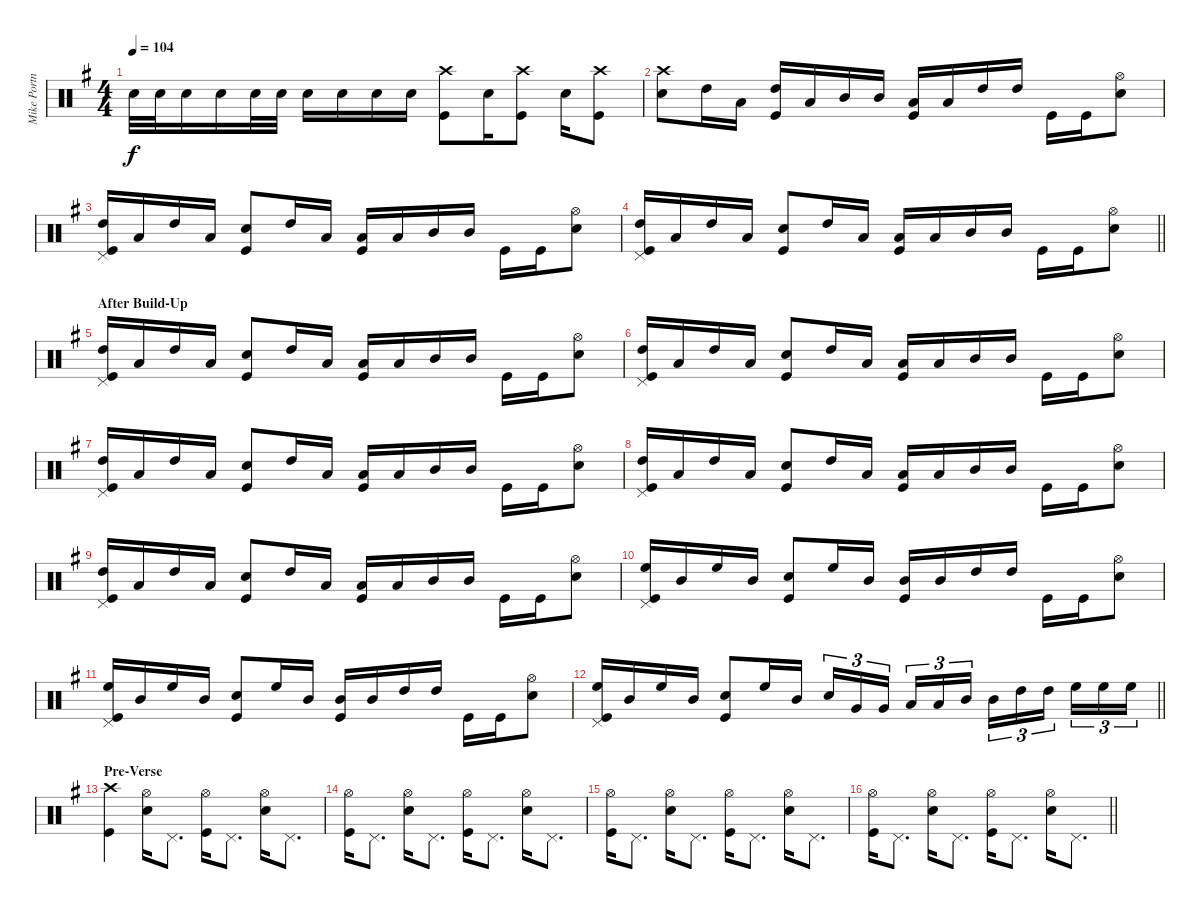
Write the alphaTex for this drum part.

\track ("Mike Portnoy" "Mike Portn") {instrument percussion}
\staff {score}
\articulation defaults
\ts (4 4)
\tempo 104
\clef neutral
\ks eminor "Snare (hit) 2".32{dy f} "Snare (hit) 2".32 "Snare (hit) 2".16 "Snare (hit) 2".16 "Snare (hit) 2".32 "Snare (hit) 2".32 "Snare (hit) 2".16 "Snare (hit) 2".16 "Snare (hit) 2".16 "Snare (hit) 2".16
("Crash high (hit)" "Kick (hit)").8 "Electric Snare (hit)".16 ("Crash high (hit)" "Kick (hit)").8 "Electric Snare (hit)".16 ("Crash high (hit)" "Kick (hit)").8 |
("Crash high (hit)" "Snare (hit) 2").8 "High Tom (hit)".16 "Low Tom (hit)".16 ("High Tom (hit)" "Kick (hit)").16 "Low Tom (hit)".16 "Mid Tom (hit)".16 "Mid Tom (hit)".16 ("Low Tom (hit)" "Kick (hit)").16 "Low Tom (hit)".16 "High Tom (hit)".16 "High Tom (hit)".16 "Kick (hit)".16 "Kick (hit)".16 ("Hi-Hat (open)" "Snare (hit) 2").8 |
("Pedal Hi-Hat (hit)" "High Tom (hit)" "Kick (hit)").16 "Low Tom (hit)".16 "High Tom (hit)".16 "Low Tom (hit)".16 ("Snare (hit) 2" "Kick (hit)").8 "High Tom (hit)".16 "Low Tom (hit)".16 ("Low Tom (hit)" "Kick (hit)").16 "Low Tom (hit)".16 "Mid Tom (hit)".16 "Mid Tom (hit)".16 "Kick (hit)".16 "Kick (hit)".16 ("Hi-Hat (open)" "Snare (hit) 2").8 |
\barLineRight lightlight
("Pedal Hi-Hat (hit)" "High Tom (hit)" "Kick (hit)").16 "Low Tom (hit)".16 "High Tom (hit)".16 "Low Tom (hit)".16 ("Snare (hit) 2" "Kick (hit)").8 "High Tom (hit)".16 "Low Tom (hit)".16 ("Low Tom (hit)" "Kick (hit)").16 "Low Tom (hit)".16 "Mid Tom (hit)".16 "Mid Tom (hit)".16 "Kick (hit)".16 "Kick (hit)".16 ("Hi-Hat (open)" "Snare (hit) 2").8 |
\section ("" "After Build-Up")
("Pedal Hi-Hat (hit)" "High Tom (hit)" "Kick (hit)").16 "Low Tom (hit)".16 "High Tom (hit)".16 "Low Tom (hit)".16 ("Snare (hit) 2" "Kick (hit)").8 "High Tom (hit)".16 "Low Tom (hit)".16 ("Low Tom (hit)" "Kick (hit)").16 "Low Tom (hit)".16 "Mid Tom (hit)".16 "Mid Tom (hit)".16 "Kick (hit)".16 "Kick (hit)".16 ("Hi-Hat (open)" "Snare (hit) 2").8 |
("Pedal Hi-Hat (hit)" "High Tom (hit)" "Kick (hit)").16 "Low Tom (hit)".16 "High Tom (hit)".16 "Low Tom (hit)".16 ("Snare (hit) 2" "Kick (hit)").8 "High Tom (hit)".16 "Low Tom (hit)".16 ("Low Tom (hit)" "Kick (hit)").16 "Low Tom (hit)".16 "Mid Tom (hit)".16 "Mid Tom (hit)".16 "Kick (hit)".16 "Kick (hit)".16 ("Hi-Hat (open)" "Snare (hit) 2").8 |
("Pedal Hi-Hat (hit)" "High Tom (hit)" "Kick (hit)").16 "Low Tom (hit)".16 "High Tom (hit)".16 "Low Tom (hit)".16 ("Snare (hit) 2" "Kick (hit)").8 "High Tom (hit)".16 "Low Tom (hit)".16 ("Low Tom (hit)" "Kick (hit)").16 "Low Tom (hit)".16 "Mid Tom (hit)".16 "Mid Tom (hit)".16 "Kick (hit)".16 "Kick (hit)".16 ("Hi-Hat (open)" "Snare (hit) 2").8 |
("Pedal Hi-Hat (hit)" "High Tom (hit)" "Kick (hit)").16 "Low Tom (hit)".16 "High Tom (hit)".16 "Low Tom (hit)".16 ("Snare (hit) 2" "Kick (hit)").8 "High Tom (hit)".16 "Low Tom (hit)".16 ("Low Tom (hit)" "Kick (hit)").16 "Low Tom (hit)".16 "Mid Tom (hit)".16 "Mid Tom (hit)".16 "Kick (hit)".16 "Kick (hit)".16 ("Hi-Hat (open)" "Snare (hit) 2").8 |
("Pedal Hi-Hat (hit)" "High Tom (hit)" "Kick (hit)").16 "Low Tom (hit)".16 "High Tom (hit)".16 "Low Tom (hit)".16 ("Snare (hit) 2" "Kick (hit)").8 "High Tom (hit)".16 "Low Tom (hit)".16 ("Low Tom (hit)" "Kick (hit)").16 "Low Tom (hit)".16 "Mid Tom (hit)".16 "Mid Tom (hit)".16 "Kick (hit)".16 "Kick (hit)".16 ("Hi-Hat (open)" "Snare (hit) 2").8 |
("Pedal Hi-Hat (hit)" "High Floor Tom (hit)" "Kick (hit)").16 "Mid Tom (hit)".16 "High Floor Tom (hit)".16 "Mid Tom (hit)".16 ("Snare (hit) 2" "Kick (hit)").8 "High Floor Tom (hit)".16 "Mid Tom (hit)".16 ("Mid Tom (hit)" "Kick (hit)").16 "Mid Tom (hit)".16 "High Tom (hit)".16 "High Tom (hit)".16 "Kick (hit)".16 "Kick (hit)".16 ("Hi-Hat (open)" "Snare (hit) 2").8 |
("Pedal Hi-Hat (hit)" "High Floor Tom (hit)" "Kick (hit)").16 "Mid Tom (hit)".16 "High Floor Tom (hit)".16 "Mid Tom (hit)".16 ("Snare (hit) 2" "Kick (hit)").8 "High Floor Tom (hit)".16 "Mid Tom (hit)".16 ("Mid Tom (hit)" "Kick (hit)").16 "Mid Tom (hit)".16 "High Tom (hit)".16 "High Tom (hit)".16 "Kick (hit)".16 "Kick (hit)".16 ("Hi-Hat (open)" "Snare (hit) 2").8 |
\barLineRight lightlight
("Pedal Hi-Hat (hit)" "High Floor Tom (hit)" "Kick (hit)").16 "Mid Tom (hit)".16 "High Floor Tom (hit)".16 "Mid Tom (hit)".16 ("Snare (hit) 2" "Kick (hit)").8 "High Floor Tom (hit)".16 "Mid Tom (hit)".16 "Snare (hit) 2".16{tu (3 2)} "Very Low Tom (hit)".16{tu (3 2)} "Very Low Tom (hit)".16{tu (3 2) beam splitsecondary} "Low Tom (hit)".16{tu (3 2)} "Low Tom (hit)".16{tu (3 2)} "Mid Tom (hit)".16{tu (3 2)} "Mid Tom (hit)".16{tu (3 2)} "High Tom (hit)".16{tu (3 2)} "High Tom (hit)".16{tu (3 2) beam splitsecondary} "High Floor Tom (hit)".16{tu (3 2)} "High Floor Tom (hit)".16{tu (3 2)} "High Floor Tom (hit)".16{tu (3 2)} |
\section ("" "Pre-Verse")
("Crash high (hit)" "Kick (hit)").4 ("Hi-Hat (open)" "Snare (hit) 2").16 "Pedal Hi-Hat (hit)".8{d} ("Hi-Hat (open)" "Kick (hit)").16 "Pedal Hi-Hat (hit)".8{d} ("Hi-Hat (open)" "Snare (hit) 2").16 "Pedal Hi-Hat (hit)".8{d} |
("Hi-Hat (open)" "Kick (hit)").16 "Pedal Hi-Hat (hit)".8{d} ("Hi-Hat (open)" "Snare (hit) 2").16 "Pedal Hi-Hat (hit)".8{d} ("Hi-Hat (open)" "Kick (hit)").16 "Pedal Hi-Hat (hit)".8{d} ("Hi-Hat (open)" "Snare (hit) 2").16 "Pedal Hi-Hat (hit)".8{d} |
("Hi-Hat (open)" "Kick (hit)").16 "Pedal Hi-Hat (hit)".8{d} ("Hi-Hat (open)" "Snare (hit) 2").16 "Pedal Hi-Hat (hit)".8{d} ("Hi-Hat (open)" "Kick (hit)").16 "Pedal Hi-Hat (hit)".8{d} ("Hi-Hat (open)" "Snare (hit) 2").16 "Pedal Hi-Hat (hit)".8{d} |
\barLineRight lightlight
("Hi-Hat (open)" "Kick (hit)").16 "Pedal Hi-Hat (hit)".8{d} ("Hi-Hat (open)" "Snare (hit) 2").16 "Pedal Hi-Hat (hit)".8{d} ("Hi-Hat (open)" "Kick (hit)").16 "Pedal Hi-Hat (hit)".8{d} ("Hi-Hat (open)" "Snare (hit) 2").16 "Pedal Hi-Hat (hit)".8{d}
